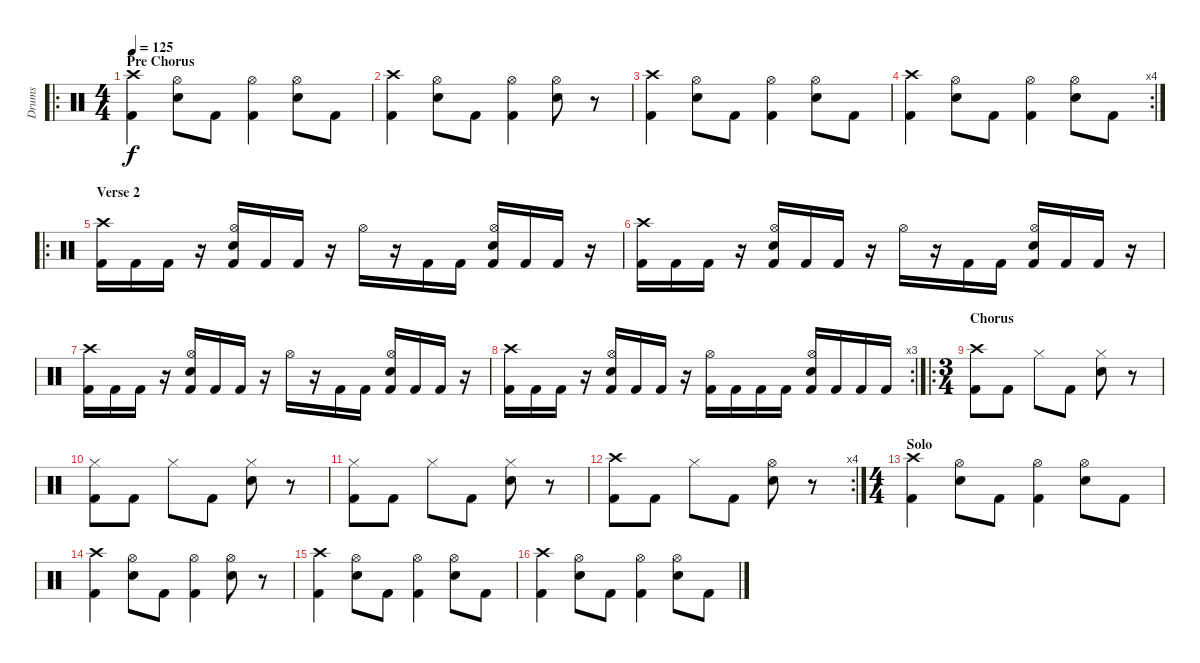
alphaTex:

\track ("Drums" "Drums") {instrument percussion}
\staff {score}
\articulation defaults
\ro
\ts (4 4)
\section ("" "Pre Chorus")
\tempo 125
\clef neutral
\ks c
("Crash high (hit)" "Kick (hit) 2").4{dy f} ("Hi-Hat (open)" "Snare (hit) 2").8 "Kick (hit) 2".8 ("Hi-Hat (open)" "Kick (hit) 2").4 ("Hi-Hat (open)" "Snare (hit) 2").8 "Kick (hit) 2".8 |
("Crash high (hit)" "Kick (hit) 2").4 ("Hi-Hat (open)" "Snare (hit) 2").8 "Kick (hit) 2".8 ("Hi-Hat (open)" "Kick (hit) 2").4 ("Hi-Hat (open)" "Snare (hit) 2").8 r.8 |
("Crash high (hit)" "Kick (hit) 2").4 ("Hi-Hat (open)" "Snare (hit) 2").8 "Kick (hit) 2".8 ("Hi-Hat (open)" "Kick (hit) 2").4 ("Hi-Hat (open)" "Snare (hit) 2").8 "Kick (hit) 2".8 |
\rc 4
("Crash high (hit)" "Kick (hit) 2").4 ("Hi-Hat (open)" "Snare (hit) 2").8 "Kick (hit) 2".8 ("Hi-Hat (open)" "Kick (hit) 2").4 ("Hi-Hat (open)" "Snare (hit) 2").8 "Kick (hit) 2".8 |
\ro
\section ("" "Verse 2")
("Crash high (hit)" "Kick (hit) 2").16 "Kick (hit) 2".16 "Kick (hit) 2".16 r.16 ("Hi-Hat (open)" "Snare (hit) 2" "Kick (hit) 2").16 "Kick (hit) 2".16 "Kick (hit) 2".16 r.16 "Hi-Hat (open)".16 r.16 "Kick (hit) 2".16 "Kick (hit) 2".16 ("Hi-Hat (open)" "Snare (hit) 2" "Kick (hit) 2").16 "Kick (hit) 2".16 "Kick (hit) 2".16 r.16 |
("Crash high (hit)" "Kick (hit) 2").16 "Kick (hit) 2".16 "Kick (hit) 2".16 r.16 ("Hi-Hat (open)" "Snare (hit) 2" "Kick (hit) 2").16 "Kick (hit) 2".16 "Kick (hit) 2".16 r.16 "Hi-Hat (open)".16 r.16 "Kick (hit) 2".16 "Kick (hit) 2".16 ("Hi-Hat (open)" "Snare (hit) 2" "Kick (hit) 2").16 "Kick (hit) 2".16 "Kick (hit) 2".16 r.16 |
("Crash high (hit)" "Kick (hit) 2").16 "Kick (hit) 2".16 "Kick (hit) 2".16 r.16 ("Hi-Hat (open)" "Snare (hit) 2" "Kick (hit) 2").16 "Kick (hit) 2".16 "Kick (hit) 2".16 r.16 "Hi-Hat (open)".16 r.16 "Kick (hit) 2".16 "Kick (hit) 2".16 ("Hi-Hat (open)" "Snare (hit) 2" "Kick (hit) 2").16 "Kick (hit) 2".16 "Kick (hit) 2".16 r.16 |
\rc 3
("Crash high (hit)" "Kick (hit) 2").16 "Kick (hit) 2".16 "Kick (hit) 2".16 r.16 ("Hi-Hat (open)" "Snare (hit) 2" "Kick (hit) 2").16 "Kick (hit) 2".16 "Kick (hit) 2".16 r.16 ("Hi-Hat (open)" "Kick (hit) 2").16 "Kick (hit) 2".16 "Kick (hit) 2".16 "Kick (hit) 2".16 ("Hi-Hat (open)" "Snare (hit) 2" "Kick (hit) 2").16 "Kick (hit) 2".16 "Kick (hit) 2".16 "Kick (hit) 2".16 |
\ro
\ts (3 4)
\section ("" "Chorus")
("Crash high (hit)" "Kick (hit) 2").8 "Kick (hit) 2".8 "Hi-Hat (closed)".8 "Kick (hit) 2".8 ("Hi-Hat (closed)" "Snare (hit) 2").8 r.8 |
("Hi-Hat (closed)" "Kick (hit) 2").8 "Kick (hit) 2".8 "Hi-Hat (closed)".8 "Kick (hit) 2".8 ("Hi-Hat (closed)" "Snare (hit) 2").8 r.8 |
("Hi-Hat (closed)" "Kick (hit) 2").8 "Kick (hit) 2".8 "Hi-Hat (closed)".8 "Kick (hit) 2".8 ("Hi-Hat (closed)" "Snare (hit) 2").8 r.8 |
\rc 4
("Crash high (hit)" "Kick (hit) 2").8 "Kick (hit) 2".8 "Hi-Hat (closed)".8 "Kick (hit) 2".8 ("Hi-Hat (open)" "Snare (hit) 2").8 r.8 |
\ts (4 4)
\section ("" "Solo")
("Crash high (hit)" "Kick (hit) 2").4 ("Hi-Hat (open)" "Snare (hit) 2").8 "Kick (hit) 2".8 ("Hi-Hat (open)" "Kick (hit) 2").4 ("Hi-Hat (open)" "Snare (hit) 2").8 "Kick (hit) 2".8 |
("Crash high (hit)" "Kick (hit) 2").4 ("Hi-Hat (open)" "Snare (hit) 2").8 "Kick (hit) 2".8 ("Hi-Hat (open)" "Kick (hit) 2").4 ("Hi-Hat (open)" "Snare (hit) 2").8 r.8 |
("Crash high (hit)" "Kick (hit) 2").4 ("Hi-Hat (open)" "Snare (hit) 2").8 "Kick (hit) 2".8 ("Hi-Hat (open)" "Kick (hit) 2").4 ("Hi-Hat (open)" "Snare (hit) 2").8 "Kick (hit) 2".8 |
("Crash high (hit)" "Kick (hit) 2").4 ("Hi-Hat (open)" "Snare (hit) 2").8 "Kick (hit) 2".8 ("Hi-Hat (open)" "Kick (hit) 2").4 ("Hi-Hat (open)" "Snare (hit) 2").8 "Kick (hit) 2".8
